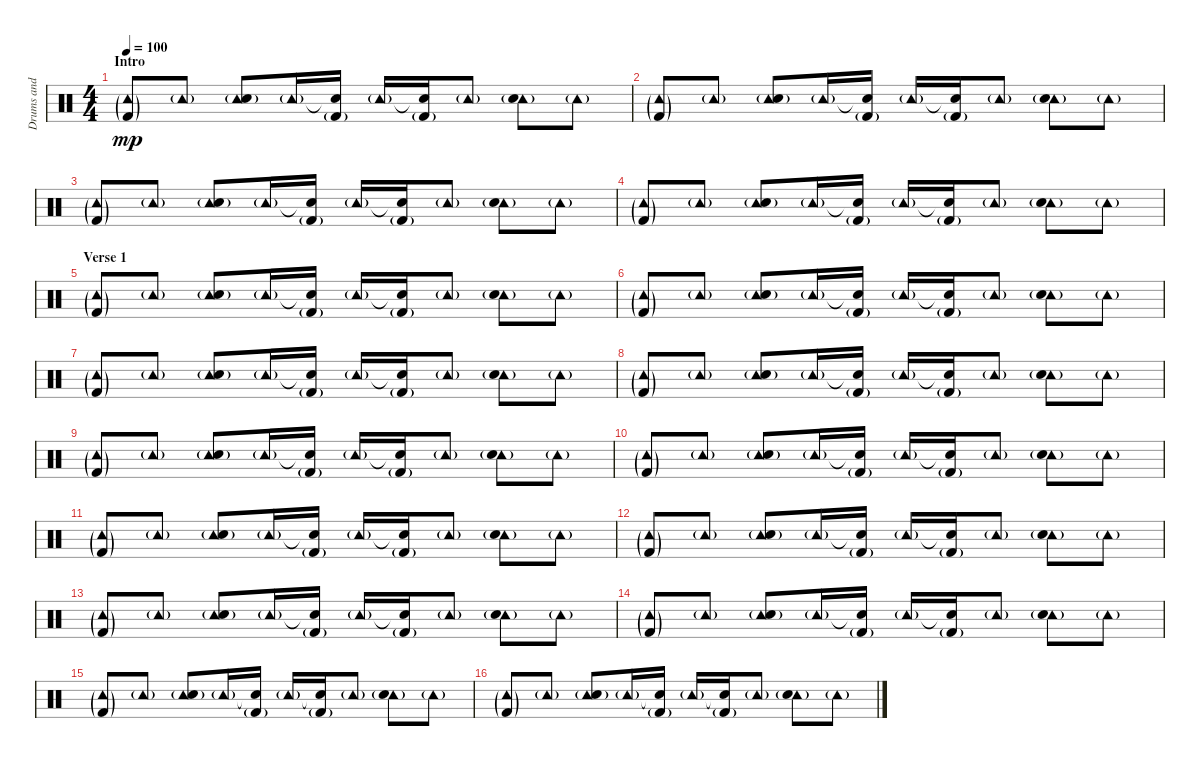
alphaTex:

\track ("Drums and Percussion" "Drums and ") {instrument percussion}
\staff {score}
\articulation defaults
\ts (4 4)
\section ("" "Intro")
\tempo 100
\clef neutral
\ks c
("Tambourine (hit)"{g} "Kick (hit) 2"{g}).8{dy mp} "Tambourine (hit)"{g}.8 ("Tambourine (hit)"{g} "Electric Snare (hit)"{g}).8 "Tambourine (hit)"{g}.16 ("Snare (hit)"{t} "Kick (hit) 2"{g}).16 "Tambourine (hit)"{g}.16 ("Snare (hit)"{t} "Kick (hit) 2"{g}).16 "Tambourine (hit)"{g}.8 ("Tambourine (hit)"{g} "Electric Snare (hit)"{g}).8 "Tambourine (hit)"{g}.8 |
("Tambourine (hit)"{g} "Kick (hit) 2"{g}).8 "Tambourine (hit)"{g}.8 ("Tambourine (hit)"{g} "Electric Snare (hit)"{g}).8 "Tambourine (hit)"{g}.16 ("Snare (hit)"{t} "Kick (hit) 2"{g}).16 "Tambourine (hit)"{g}.16 ("Snare (hit)"{t} "Kick (hit) 2"{g}).16 "Tambourine (hit)"{g}.8 ("Tambourine (hit)"{g} "Electric Snare (hit)"{g}).8 "Tambourine (hit)"{g}.8 |
("Tambourine (hit)"{g} "Kick (hit) 2"{g}).8 "Tambourine (hit)"{g}.8 ("Tambourine (hit)"{g} "Electric Snare (hit)"{g}).8 "Tambourine (hit)"{g}.16 ("Snare (hit)"{t} "Kick (hit) 2"{g}).16 "Tambourine (hit)"{g}.16 ("Snare (hit)"{t} "Kick (hit) 2"{g}).16 "Tambourine (hit)"{g}.8 ("Tambourine (hit)"{g} "Electric Snare (hit)"{g}).8 "Tambourine (hit)"{g}.8 |
("Tambourine (hit)"{g} "Kick (hit) 2"{g}).8 "Tambourine (hit)"{g}.8 ("Tambourine (hit)"{g} "Electric Snare (hit)"{g}).8 "Tambourine (hit)"{g}.16 ("Snare (hit)"{t} "Kick (hit) 2"{g}).16 "Tambourine (hit)"{g}.16 ("Snare (hit)"{t} "Kick (hit) 2"{g}).16 "Tambourine (hit)"{g}.8 ("Tambourine (hit)"{g} "Electric Snare (hit)"{g}).8 "Tambourine (hit)"{g}.8 |
\section ("" "Verse 1")
("Tambourine (hit)"{g} "Kick (hit) 2"{g}).8 "Tambourine (hit)"{g}.8 ("Tambourine (hit)"{g} "Electric Snare (hit)"{g}).8 "Tambourine (hit)"{g}.16 ("Snare (hit)"{t} "Kick (hit) 2"{g}).16 "Tambourine (hit)"{g}.16 ("Snare (hit)"{t} "Kick (hit) 2"{g}).16 "Tambourine (hit)"{g}.8 ("Tambourine (hit)"{g} "Electric Snare (hit)"{g}).8 "Tambourine (hit)"{g}.8 |
("Tambourine (hit)"{g} "Kick (hit) 2"{g}).8 "Tambourine (hit)"{g}.8 ("Tambourine (hit)"{g} "Electric Snare (hit)"{g}).8 "Tambourine (hit)"{g}.16 ("Snare (hit)"{t} "Kick (hit) 2"{g}).16 "Tambourine (hit)"{g}.16 ("Snare (hit)"{t} "Kick (hit) 2"{g}).16 "Tambourine (hit)"{g}.8 ("Tambourine (hit)"{g} "Electric Snare (hit)"{g}).8 "Tambourine (hit)"{g}.8 |
("Tambourine (hit)"{g} "Kick (hit) 2"{g}).8 "Tambourine (hit)"{g}.8 ("Tambourine (hit)"{g} "Electric Snare (hit)"{g}).8 "Tambourine (hit)"{g}.16 ("Snare (hit)"{t} "Kick (hit) 2"{g}).16 "Tambourine (hit)"{g}.16 ("Snare (hit)"{t} "Kick (hit) 2"{g}).16 "Tambourine (hit)"{g}.8 ("Tambourine (hit)"{g} "Electric Snare (hit)"{g}).8 "Tambourine (hit)"{g}.8 |
("Tambourine (hit)"{g} "Kick (hit) 2"{g}).8 "Tambourine (hit)"{g}.8 ("Tambourine (hit)"{g} "Electric Snare (hit)"{g}).8 "Tambourine (hit)"{g}.16 ("Snare (hit)"{t} "Kick (hit) 2"{g}).16 "Tambourine (hit)"{g}.16 ("Snare (hit)"{t} "Kick (hit) 2"{g}).16 "Tambourine (hit)"{g}.8 ("Tambourine (hit)"{g} "Electric Snare (hit)"{g}).8 "Tambourine (hit)"{g}.8 |
("Tambourine (hit)"{g} "Kick (hit) 2"{g}).8 "Tambourine (hit)"{g}.8 ("Tambourine (hit)"{g} "Electric Snare (hit)"{g}).8 "Tambourine (hit)"{g}.16 ("Snare (hit)"{t} "Kick (hit) 2"{g}).16 "Tambourine (hit)"{g}.16 ("Snare (hit)"{t} "Kick (hit) 2"{g}).16 "Tambourine (hit)"{g}.8 ("Tambourine (hit)"{g} "Electric Snare (hit)"{g}).8 "Tambourine (hit)"{g}.8 |
("Tambourine (hit)"{g} "Kick (hit) 2"{g}).8 "Tambourine (hit)"{g}.8 ("Tambourine (hit)"{g} "Electric Snare (hit)"{g}).8 "Tambourine (hit)"{g}.16 ("Snare (hit)"{t} "Kick (hit) 2"{g}).16 "Tambourine (hit)"{g}.16 ("Snare (hit)"{t} "Kick (hit) 2"{g}).16 "Tambourine (hit)"{g}.8 ("Tambourine (hit)"{g} "Electric Snare (hit)"{g}).8 "Tambourine (hit)"{g}.8 |
("Tambourine (hit)"{g} "Kick (hit) 2"{g}).8 "Tambourine (hit)"{g}.8 ("Tambourine (hit)"{g} "Electric Snare (hit)"{g}).8 "Tambourine (hit)"{g}.16 ("Snare (hit)"{t} "Kick (hit) 2"{g}).16 "Tambourine (hit)"{g}.16 ("Snare (hit)"{t} "Kick (hit) 2"{g}).16 "Tambourine (hit)"{g}.8 ("Tambourine (hit)"{g} "Electric Snare (hit)"{g}).8 "Tambourine (hit)"{g}.8 |
("Tambourine (hit)"{g} "Kick (hit) 2"{g}).8 "Tambourine (hit)"{g}.8 ("Tambourine (hit)"{g} "Electric Snare (hit)"{g}).8 "Tambourine (hit)"{g}.16 ("Snare (hit)"{t} "Kick (hit) 2"{g}).16 "Tambourine (hit)"{g}.16 ("Snare (hit)"{t} "Kick (hit) 2"{g}).16 "Tambourine (hit)"{g}.8 ("Tambourine (hit)"{g} "Electric Snare (hit)"{g}).8 "Tambourine (hit)"{g}.8 |
("Tambourine (hit)"{g} "Kick (hit) 2"{g}).8 "Tambourine (hit)"{g}.8 ("Tambourine (hit)"{g} "Electric Snare (hit)"{g}).8 "Tambourine (hit)"{g}.16 ("Snare (hit)"{t} "Kick (hit) 2"{g}).16 "Tambourine (hit)"{g}.16 ("Snare (hit)"{t} "Kick (hit) 2"{g}).16 "Tambourine (hit)"{g}.8 ("Tambourine (hit)"{g} "Electric Snare (hit)"{g}).8 "Tambourine (hit)"{g}.8 |
("Tambourine (hit)"{g} "Kick (hit) 2"{g}).8 "Tambourine (hit)"{g}.8 ("Tambourine (hit)"{g} "Electric Snare (hit)"{g}).8 "Tambourine (hit)"{g}.16 ("Snare (hit)"{t} "Kick (hit) 2"{g}).16 "Tambourine (hit)"{g}.16 ("Snare (hit)"{t} "Kick (hit) 2"{g}).16 "Tambourine (hit)"{g}.8 ("Tambourine (hit)"{g} "Electric Snare (hit)"{g}).8 "Tambourine (hit)"{g}.8 |
("Tambourine (hit)"{g} "Kick (hit) 2"{g}).8 "Tambourine (hit)"{g}.8 ("Tambourine (hit)"{g} "Electric Snare (hit)"{g}).8 "Tambourine (hit)"{g}.16 ("Snare (hit)"{t} "Kick (hit) 2"{g}).16 "Tambourine (hit)"{g}.16 ("Snare (hit)"{t} "Kick (hit) 2"{g}).16 "Tambourine (hit)"{g}.8 ("Tambourine (hit)"{g} "Electric Snare (hit)"{g}).8 "Tambourine (hit)"{g}.8 |
("Tambourine (hit)"{g} "Kick (hit) 2"{g}).8 "Tambourine (hit)"{g}.8 ("Tambourine (hit)"{g} "Electric Snare (hit)"{g}).8 "Tambourine (hit)"{g}.16 ("Snare (hit)"{t} "Kick (hit) 2"{g}).16 "Tambourine (hit)"{g}.16 ("Snare (hit)"{t} "Kick (hit) 2"{g}).16 "Tambourine (hit)"{g}.8 ("Tambourine (hit)"{g} "Electric Snare (hit)"{g}).8 "Tambourine (hit)"{g}.8
